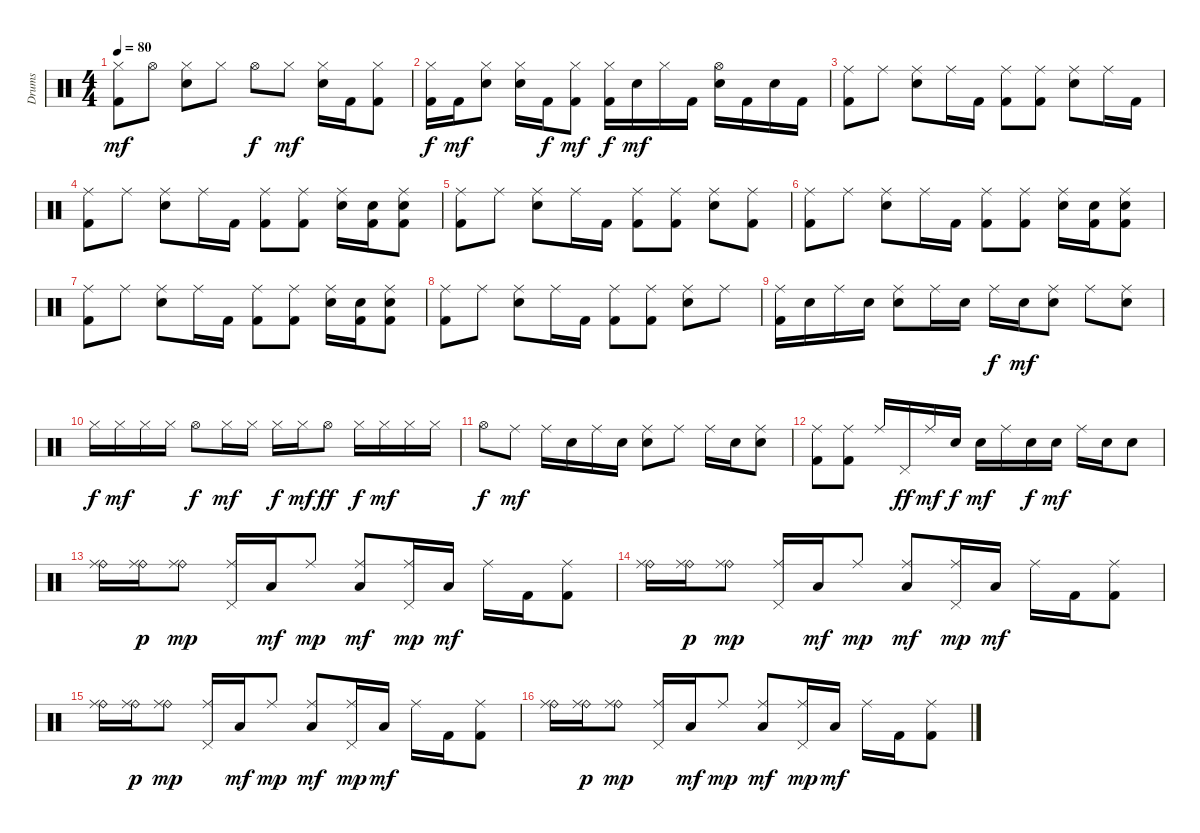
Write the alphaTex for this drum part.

\track ("Drums" "Drums") {instrument percussion}
\staff {score}
\articulation defaults
\ts (4 4)
\tempo 80
\clef neutral
\ks c
("Hi-Hat (closed)" "Kick (hit) 2").8{dy mf} "Hi-Hat (open)".8 ("Hi-Hat (closed)" "Electric Snare (hit)").8 "Hi-Hat (closed)".8 "Hi-Hat (open)".8{dy f} "Hi-Hat (closed)".8{dy mf} ("Hi-Hat (closed)" "Electric Snare (hit)").16 "Kick (hit) 2".16 ("Hi-Hat (closed)" "Kick (hit) 2").8 |
("Hi-Hat (closed)" "Kick (hit) 2").16{dy f} "Kick (hit) 2".16{dy mf} ("Hi-Hat (closed)" "Electric Snare (hit)").8 ("Hi-Hat (closed)" "Electric Snare (hit)").16 "Kick (hit) 2".16{dy f} ("Hi-Hat (closed)" "Kick (hit) 2").8{dy mf} ("Hi-Hat (closed)" "Kick (hit) 2").16{dy f} "Electric Snare (hit)".16{dy mf} "Hi-Hat (closed)".16 "Kick (hit) 2".16 ("Hi-Hat (open)" "Electric Snare (hit)").16 "Kick (hit) 2".16 "Electric Snare (hit)".16 "Kick (hit) 2".16 |
("Ride (middle)" "Kick (hit) 2").8 "Ride (middle)".8 ("Ride (middle)" "Electric Snare (hit)").8 "Ride (middle)".16 "Kick (hit) 2".16 ("Ride (middle)" "Kick (hit) 2").8 ("Ride (middle)" "Kick (hit) 2").8 ("Ride (middle)" "Electric Snare (hit)").8 "Ride (middle)".16 "Kick (hit) 2".16 |
("Ride (middle)" "Kick (hit) 2").8 "Ride (middle)".8 ("Ride (middle)" "Electric Snare (hit)").8 "Ride (middle)".16 "Kick (hit) 2".16 ("Ride (middle)" "Kick (hit) 2").8 ("Ride (middle)" "Kick (hit) 2").8 ("Ride (middle)" "Electric Snare (hit)").16 ("Electric Snare (hit)" "Kick (hit) 2").16 ("Ride (middle)" "Electric Snare (hit)" "Kick (hit) 2").8 |
("Ride (middle)" "Kick (hit) 2").8 "Ride (middle)".8 ("Ride (middle)" "Electric Snare (hit)").8 "Ride (middle)".16 "Kick (hit) 2".16 ("Ride (middle)" "Kick (hit) 2").8 ("Ride (middle)" "Kick (hit) 2").8 ("Ride (middle)" "Electric Snare (hit)").8 ("Ride (middle)" "Kick (hit) 2").8 |
("Ride (middle)" "Kick (hit) 2").8 "Ride (middle)".8 ("Ride (middle)" "Electric Snare (hit)").8 "Ride (middle)".16 "Kick (hit) 2".16 ("Ride (middle)" "Kick (hit) 2").8 ("Ride (middle)" "Kick (hit) 2").8 ("Ride (middle)" "Electric Snare (hit)").16 ("Electric Snare (hit)" "Kick (hit) 2").16 ("Ride (middle)" "Electric Snare (hit)" "Kick (hit) 2").8 |
("Ride (middle)" "Kick (hit) 2").8 "Ride (middle)".8 ("Ride (middle)" "Electric Snare (hit)").8 "Ride (middle)".16 "Kick (hit) 2".16 ("Ride (middle)" "Kick (hit) 2").8 ("Ride (middle)" "Kick (hit) 2").8 ("Ride (middle)" "Electric Snare (hit)").16 ("Electric Snare (hit)" "Kick (hit) 2").16 ("Ride (middle)" "Electric Snare (hit)" "Kick (hit) 2").8 |
("Ride (middle)" "Kick (hit) 2").8 "Ride (middle)".8 ("Ride (middle)" "Electric Snare (hit)").8 "Ride (middle)".16 "Kick (hit) 2".16 ("Ride (middle)" "Kick (hit) 2").8 ("Ride (middle)" "Kick (hit) 2").8 ("Ride (middle)" "Electric Snare (hit)").8 "Ride (middle)".8 |
("Ride (middle)" "Kick (hit) 2").16 "Electric Snare (hit)".16 "Ride (middle)".16 "Electric Snare (hit)".16 ("Ride (middle)" "Electric Snare (hit)").8 "Ride (middle)".16 "Electric Snare (hit)".16 "Ride (middle)".16{dy f} "Electric Snare (hit)".16{dy mf} ("Ride (middle)" "Electric Snare (hit)").8 "Ride (middle)".8 ("Ride (middle)" "Electric Snare (hit)").8 |
"Hi-Hat (closed)".16{dy f} "Hi-Hat (closed)".16{dy mf} "Hi-Hat (closed)".16 "Hi-Hat (closed)".16 "Hi-Hat (open)".8{dy f} "Hi-Hat (closed)".16{dy mf} "Hi-Hat (closed)".16 "Hi-Hat (closed)".16{dy f} "Hi-Hat (closed)".16{dy mf} "Hi-Hat (open)".8{dy ff} "Hi-Hat (closed)".16{dy f} "Hi-Hat (closed)".16{dy mf} "Hi-Hat (closed)".16 "Hi-Hat (closed)".16 |
"Hi-Hat (open)".8{dy f} "Ride (middle)".8{dy mf} "Ride (middle)".16 "Electric Snare (hit)".16 "Ride (middle)".16 "Electric Snare (hit)".16 ("Ride (middle)" "Electric Snare (hit)").8 "Ride (middle)".8 "Ride (middle)".16 "Electric Snare (hit)".16 ("Ride (middle)" "Electric Snare (hit)").8 |
("Ride (middle)" "Kick (hit) 2").8 ("Ride (middle)" "Kick (hit) 2").8 "Ride (middle)".16 "Pedal Hi-Hat (hit)".16{dy ff} "Ride (middle)".16{dy mf} "Electric Snare (hit)".16{dy f} "Electric Snare (hit)".16{dy mf} "Ride (middle)".16 "Electric Snare (hit)".16{dy f} "Electric Snare (hit)".16{dy mf} "Ride (middle)".16 "Electric Snare (hit)".16 "Electric Snare (hit)".8 |
("Ride (bell)" "Ride (middle)").16 ("Ride (bell)" "Ride (middle)").16{dy p} ("Ride (bell)" "Ride (middle)").8{dy mp} ("Ride (middle)" "Pedal Hi-Hat (hit)").16 "Low Tom (hit)".16{dy mf} "Ride (middle)".8{dy mp} ("Ride (middle)" "Low Tom (hit)").8{dy mf} ("Ride (middle)" "Pedal Hi-Hat (hit)").16{dy mp} "Low Tom (hit)".16{dy mf} "Ride (middle)".16 "Kick (hit) 2".16 ("Ride (middle)" "Kick (hit) 2").8 |
("Ride (bell)" "Ride (middle)").16 ("Ride (bell)" "Ride (middle)").16{dy p} ("Ride (bell)" "Ride (middle)").8{dy mp} ("Ride (middle)" "Pedal Hi-Hat (hit)").16 "Low Tom (hit)".16{dy mf} "Ride (middle)".8{dy mp} ("Ride (middle)" "Low Tom (hit)").8{dy mf} ("Ride (middle)" "Pedal Hi-Hat (hit)").16{dy mp} "Low Tom (hit)".16{dy mf} "Ride (middle)".16 "Kick (hit) 2".16 ("Ride (middle)" "Kick (hit) 2").8 |
("Ride (bell)" "Ride (middle)").16 ("Ride (bell)" "Ride (middle)").16{dy p} ("Ride (bell)" "Ride (middle)").8{dy mp} ("Ride (middle)" "Pedal Hi-Hat (hit)").16 "Low Tom (hit)".16{dy mf} "Ride (middle)".8{dy mp} ("Ride (middle)" "Low Tom (hit)").8{dy mf} ("Ride (middle)" "Pedal Hi-Hat (hit)").16{dy mp} "Low Tom (hit)".16{dy mf} "Ride (middle)".16 "Kick (hit) 2".16 ("Ride (middle)" "Kick (hit) 2").8 |
("Ride (bell)" "Ride (middle)").16 ("Ride (bell)" "Ride (middle)").16{dy p} ("Ride (bell)" "Ride (middle)").8{dy mp} ("Ride (middle)" "Pedal Hi-Hat (hit)").16 "Low Tom (hit)".16{dy mf} "Ride (middle)".8{dy mp} ("Ride (middle)" "Low Tom (hit)").8{dy mf} ("Ride (middle)" "Pedal Hi-Hat (hit)").16{dy mp} "Low Tom (hit)".16{dy mf} "Ride (middle)".16 "Kick (hit) 2".16 ("Ride (middle)" "Kick (hit) 2").8
